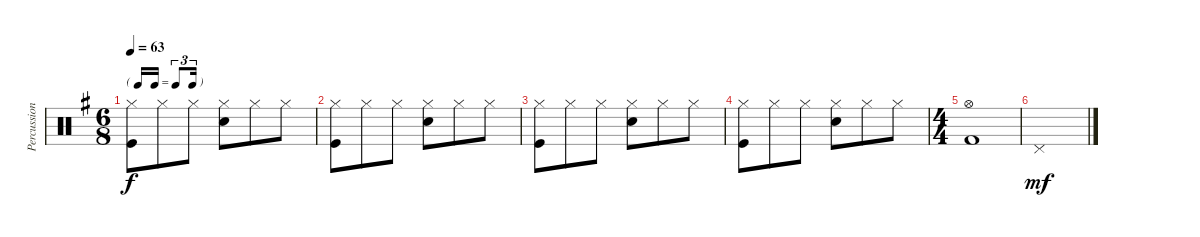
\track ("Percussion" "Percussion") {instrument percussion}
\staff {score}
\articulation defaults
\ts (6 8)
\tf triplet16th
\tempo 63
\clef neutral
\ks g
("Hi-Hat (closed)" "Kick (hit)").8{dy f} "Hi-Hat (closed)".8 "Hi-Hat (closed)".8 ("Hi-Hat (closed)" "Electric Snare (hit)").8 "Hi-Hat (closed)".8 "Hi-Hat (closed)".8 |
("Hi-Hat (closed)" "Kick (hit)").8 "Hi-Hat (closed)".8 "Hi-Hat (closed)".8 ("Hi-Hat (closed)" "Electric Snare (hit)").8 "Hi-Hat (closed)".8 "Hi-Hat (closed)".8 |
("Hi-Hat (closed)" "Kick (hit)").8 "Hi-Hat (closed)".8 "Hi-Hat (closed)".8 ("Hi-Hat (closed)" "Electric Snare (hit)").8 "Hi-Hat (closed)".8 "Hi-Hat (closed)".8 |
("Hi-Hat (closed)" "Kick (hit)").8 "Hi-Hat (closed)".8 "Hi-Hat (closed)".8 ("Hi-Hat (closed)" "Electric Snare (hit)").8 "Hi-Hat (closed)".8 "Hi-Hat (closed)".8 |
\ts (4 4)
("Hi-Hat (open)" "Kick (hit) 2").1 |
"Pedal Hi-Hat (hit)".1{dy mf}
